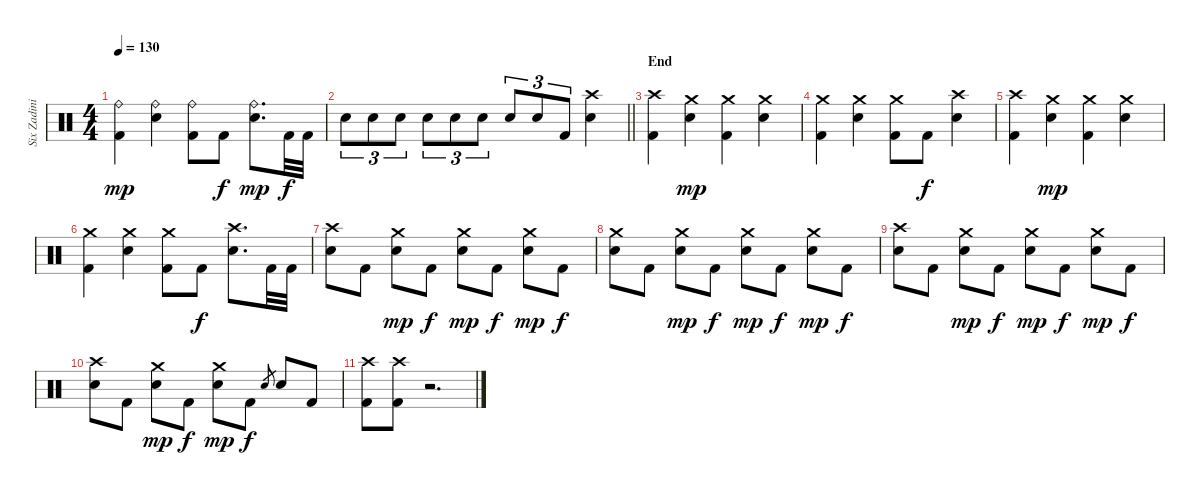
\track ("Six Zadinia" "Six Zadini") {instrument percussion}
\staff {score}
\articulation defaults
\ts (4 4)
\tempo 130
\clef neutral
\ks c
("Ride (bell)" "Kick (hit) 2").4{dy mp} ("Ride (bell)" "Electric Snare (hit)").4 ("Ride (bell)" "Kick (hit) 2").8 "Kick (hit) 2".8{dy f} ("Ride (bell)" "Electric Snare (hit)").8{d dy mp} "Kick (hit) 2".32{dy f} "Kick (hit) 2".32 |
\barLineRight lightlight "Electric Snare (hit)".8{tu (3 2)} "Electric Snare (hit)".8{tu (3 2)} "Electric Snare (hit)".8{tu (3 2)} "Electric Snare (hit)".8{tu (3 2)} "Electric Snare (hit)".8{tu (3 2)} "Electric Snare (hit)".8{tu (3 2)} "Electric Snare (hit)".8{tu (3 2)} "Electric Snare (hit)".8{tu (3 2)} "Kick (hit) 2".8{tu (3 2)}
("Crash high (hit)" "Electric Snare (hit)").4 |
\section ("" "End")
("Crash high (hit)" "Kick (hit) 2").4 ("Crash medium (hit)" "Electric Snare (hit)").4{dy mp} ("Crash medium (hit)" "Kick (hit) 2").4 ("Crash medium (hit)" "Electric Snare (hit)").4 |
("Crash medium (hit)" "Kick (hit) 2").4 ("Crash medium (hit)" "Electric Snare (hit)").4 ("Crash medium (hit)" "Kick (hit) 2").8 "Kick (hit) 2".8{dy f} ("Crash high (hit)" "Electric Snare (hit)").4 |
("Crash high (hit)" "Kick (hit) 2").4 ("Crash medium (hit)" "Electric Snare (hit)").4{dy mp} ("Crash medium (hit)" "Kick (hit) 2").4 ("Crash medium (hit)" "Electric Snare (hit)").4 |
("Crash medium (hit)" "Kick (hit) 2").4 ("Crash medium (hit)" "Electric Snare (hit)").4 ("Crash medium (hit)" "Kick (hit) 2").8 "Kick (hit) 2".8{dy f} ("Crash high (hit)" "Electric Snare (hit)").8{d} "Kick (hit) 2".32 "Kick (hit) 2".32 |
("Crash high (hit)" "Electric Snare (hit)").8 "Kick (hit) 2".8 ("Crash medium (hit)" "Electric Snare (hit)").8{dy mp} "Kick (hit) 2".8{dy f} ("Crash medium (hit)" "Electric Snare (hit)").8{dy mp} "Kick (hit) 2".8{dy f} ("Crash medium (hit)" "Electric Snare (hit)").8{dy mp} "Kick (hit) 2".8{dy f} |
("Crash medium (hit)" "Electric Snare (hit)").8 "Kick (hit) 2".8 ("Crash medium (hit)" "Electric Snare (hit)").8{dy mp} "Kick (hit) 2".8{dy f} ("Crash medium (hit)" "Electric Snare (hit)").8{dy mp} "Kick (hit) 2".8{dy f} ("Crash medium (hit)" "Electric Snare (hit)").8{dy mp} "Kick (hit) 2".8{dy f} |
("Crash high (hit)" "Electric Snare (hit)").8 "Kick (hit) 2".8 ("Crash medium (hit)" "Electric Snare (hit)").8{dy mp} "Kick (hit) 2".8{dy f} ("Crash medium (hit)" "Electric Snare (hit)").8{dy mp} "Kick (hit) 2".8{dy f} ("Crash medium (hit)" "Electric Snare (hit)").8{dy mp} "Kick (hit) 2".8{dy f} |
("Crash high (hit)" "Electric Snare (hit)").8 "Kick (hit) 2".8 ("Crash medium (hit)" "Electric Snare (hit)").8{dy mp} "Kick (hit) 2".8{dy f} ("Crash medium (hit)" "Electric Snare (hit)").8{dy mp} "Kick (hit) 2".8{dy f} "Electric Snare (hit)".8{gr} "Electric Snare (hit)".8 "Kick (hit) 2".8 |
("Crash high (hit)" "Kick (hit) 2").8 ("Crash high (hit)" "Kick (hit) 2").8 r.2{d}
